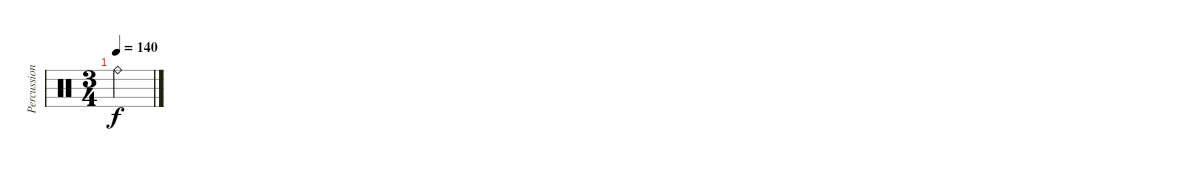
\track ("Percussion" "Percussion") {instrument percussion}
\staff {score}
\articulation defaults
\ts (3 4)
\tempo 140
\clef neutral
\ks c "Ride (bell)".4{dy f}
